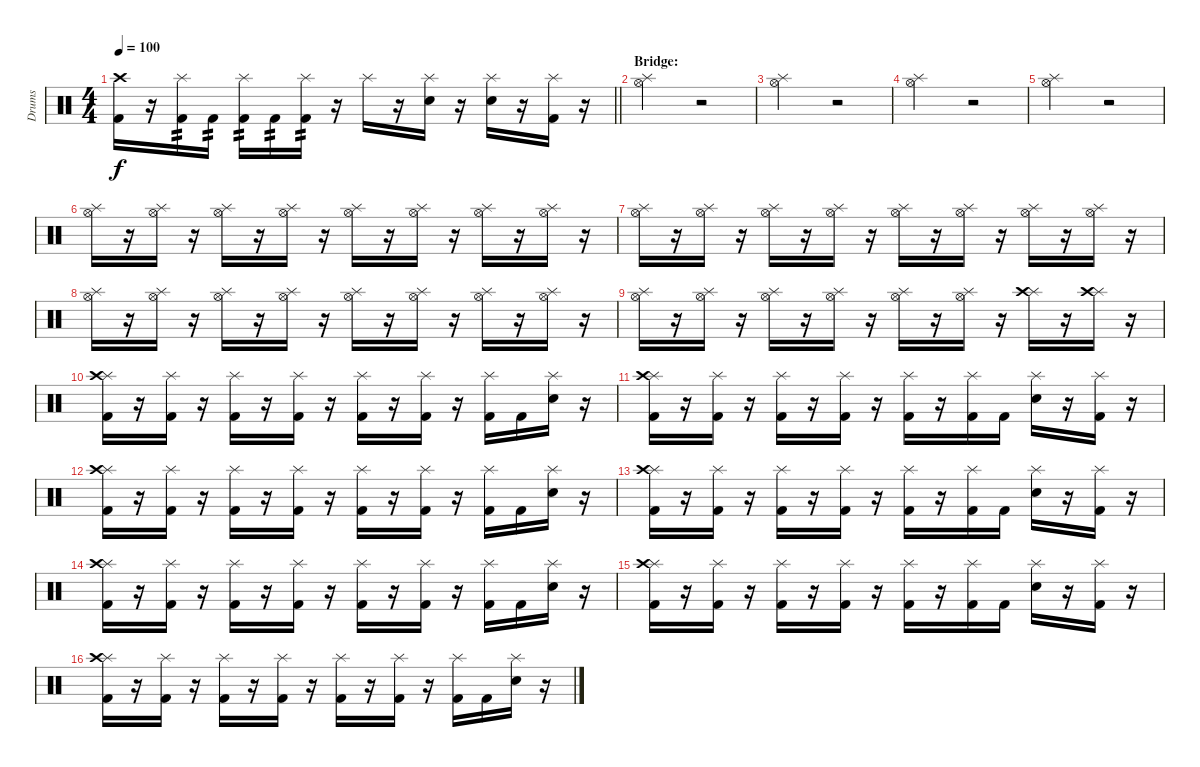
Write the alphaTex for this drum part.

\track ("Drums" "Drums") {instrument percussion}
\staff {score}
\articulation defaults
\ts (4 4)
\tempo 100
\clef neutral
\barLineRight lightlight
\ks c
("Crash high (hit)" "Kick (hit) 2").16{dy f} r.16 ("Splash (hit)" "Kick (hit) 2").16{tp 2} "Kick (hit) 2".16{tp 2} ("Splash (hit)" "Kick (hit) 2").16{tp 2} "Kick (hit) 2".16{tp 2} ("Splash (hit)" "Kick (hit) 2").16{tp 2} r.16 "Splash (hit)".16 r.16 ("Splash (hit)" "Electric Snare (hit)").16 r.16 ("Splash (hit)" "Electric Snare (hit)").16 r.16 ("Splash (hit)" "Kick (hit) 2").16 r.16 |
\section ("" "Bridge:")
("Splash (hit)" "Hi-Hat (open)").2 r.2 |
("Splash (hit)" "Hi-Hat (open)").2 r.2 |
("Splash (hit)" "Hi-Hat (open)").2 r.2 |
("Splash (hit)" "Hi-Hat (open)").2 r.2{volume 0} |
("Splash (hit)" "Hi-Hat (open)").16{volume 11} r.16 ("Splash (hit)" "Hi-Hat (open)").16 r.16 ("Splash (hit)" "Hi-Hat (open)").16 r.16 ("Splash (hit)" "Hi-Hat (open)").16 r.16 ("Splash (hit)" "Hi-Hat (open)").16 r.16 ("Splash (hit)" "Hi-Hat (open)").16 r.16 ("Splash (hit)" "Hi-Hat (open)").16 r.16 ("Splash (hit)" "Hi-Hat (open)").16 r.16 |
("Splash (hit)" "Hi-Hat (open)").16 r.16 ("Splash (hit)" "Hi-Hat (open)").16 r.16 ("Splash (hit)" "Hi-Hat (open)").16 r.16 ("Splash (hit)" "Hi-Hat (open)").16 r.16 ("Splash (hit)" "Hi-Hat (open)").16 r.16 ("Splash (hit)" "Hi-Hat (open)").16 r.16 ("Splash (hit)" "Hi-Hat (open)").16 r.16 ("Splash (hit)" "Hi-Hat (open)").16 r.16 |
("Splash (hit)" "Hi-Hat (open)").16 r.16 ("Splash (hit)" "Hi-Hat (open)").16 r.16 ("Splash (hit)" "Hi-Hat (open)").16 r.16 ("Splash (hit)" "Hi-Hat (open)").16 r.16 ("Splash (hit)" "Hi-Hat (open)").16 r.16 ("Splash (hit)" "Hi-Hat (open)").16 r.16 ("Splash (hit)" "Hi-Hat (open)").16 r.16 ("Splash (hit)" "Hi-Hat (open)").16 r.16 |
("Splash (hit)" "Hi-Hat (open)").16 r.16 ("Splash (hit)" "Hi-Hat (open)").16 r.16 ("Splash (hit)" "Hi-Hat (open)").16 r.16 ("Splash (hit)" "Hi-Hat (open)").16 r.16 ("Splash (hit)" "Hi-Hat (open)").16 r.16 ("Splash (hit)" "Hi-Hat (open)").16 r.16 ("Splash (hit)" "Crash high (hit)").16 r.16 ("Splash (hit)" "Crash high (hit)").16 r.16 |
("Splash (hit)" "Crash high (hit)" "Kick (hit) 2").16 r.16 ("Splash (hit)" "Kick (hit) 2").16 r.16 ("Splash (hit)" "Kick (hit) 2").16 r.16 ("Splash (hit)" "Kick (hit) 2").16 r.16 ("Splash (hit)" "Kick (hit) 2").16 r.16 ("Splash (hit)" "Kick (hit) 2").16 r.16 ("Splash (hit)" "Kick (hit) 2").16 "Kick (hit) 2".16 ("Splash (hit)" "Electric Snare (hit)").16 r.16 |
("Splash (hit)" "Crash high (hit)" "Kick (hit) 2").16 r.16 ("Splash (hit)" "Kick (hit) 2").16 r.16 ("Splash (hit)" "Kick (hit) 2").16 r.16 ("Splash (hit)" "Kick (hit) 2").16 r.16 ("Splash (hit)" "Kick (hit) 2").16 r.16 ("Splash (hit)" "Kick (hit) 2").16 "Kick (hit) 2".16 ("Splash (hit)" "Electric Snare (hit)").16 r.16 ("Splash (hit)" "Kick (hit) 2").16 r.16 |
("Splash (hit)" "Crash high (hit)" "Kick (hit) 2").16 r.16 ("Splash (hit)" "Kick (hit) 2").16 r.16 ("Splash (hit)" "Kick (hit) 2").16 r.16 ("Splash (hit)" "Kick (hit) 2").16 r.16 ("Splash (hit)" "Kick (hit) 2").16 r.16 ("Splash (hit)" "Kick (hit) 2").16 r.16 ("Splash (hit)" "Kick (hit) 2").16 "Kick (hit) 2".16 ("Splash (hit)" "Electric Snare (hit)").16 r.16 |
("Splash (hit)" "Crash high (hit)" "Kick (hit) 2").16 r.16 ("Splash (hit)" "Kick (hit) 2").16 r.16 ("Splash (hit)" "Kick (hit) 2").16 r.16 ("Splash (hit)" "Kick (hit) 2").16 r.16 ("Splash (hit)" "Kick (hit) 2").16 r.16 ("Splash (hit)" "Kick (hit) 2").16 "Kick (hit) 2".16 ("Splash (hit)" "Electric Snare (hit)").16 r.16 ("Splash (hit)" "Kick (hit) 2").16 r.16 |
("Splash (hit)" "Crash high (hit)" "Kick (hit) 2").16 r.16 ("Splash (hit)" "Kick (hit) 2").16 r.16 ("Splash (hit)" "Kick (hit) 2").16 r.16 ("Splash (hit)" "Kick (hit) 2").16 r.16 ("Splash (hit)" "Kick (hit) 2").16 r.16 ("Splash (hit)" "Kick (hit) 2").16 r.16 ("Splash (hit)" "Kick (hit) 2").16 "Kick (hit) 2".16 ("Splash (hit)" "Electric Snare (hit)").16 r.16 |
("Splash (hit)" "Crash high (hit)" "Kick (hit) 2").16 r.16 ("Splash (hit)" "Kick (hit) 2").16 r.16 ("Splash (hit)" "Kick (hit) 2").16 r.16 ("Splash (hit)" "Kick (hit) 2").16 r.16 ("Splash (hit)" "Kick (hit) 2").16 r.16 ("Splash (hit)" "Kick (hit) 2").16 "Kick (hit) 2".16 ("Splash (hit)" "Electric Snare (hit)").16 r.16 ("Splash (hit)" "Kick (hit) 2").16 r.16 |
("Splash (hit)" "Crash high (hit)" "Kick (hit) 2").16 r.16 ("Splash (hit)" "Kick (hit) 2").16 r.16 ("Splash (hit)" "Kick (hit) 2").16 r.16 ("Splash (hit)" "Kick (hit) 2").16 r.16 ("Splash (hit)" "Kick (hit) 2").16 r.16 ("Splash (hit)" "Kick (hit) 2").16 r.16 ("Splash (hit)" "Kick (hit) 2").16 "Kick (hit) 2".16 ("Splash (hit)" "Electric Snare (hit)").16 r.16
